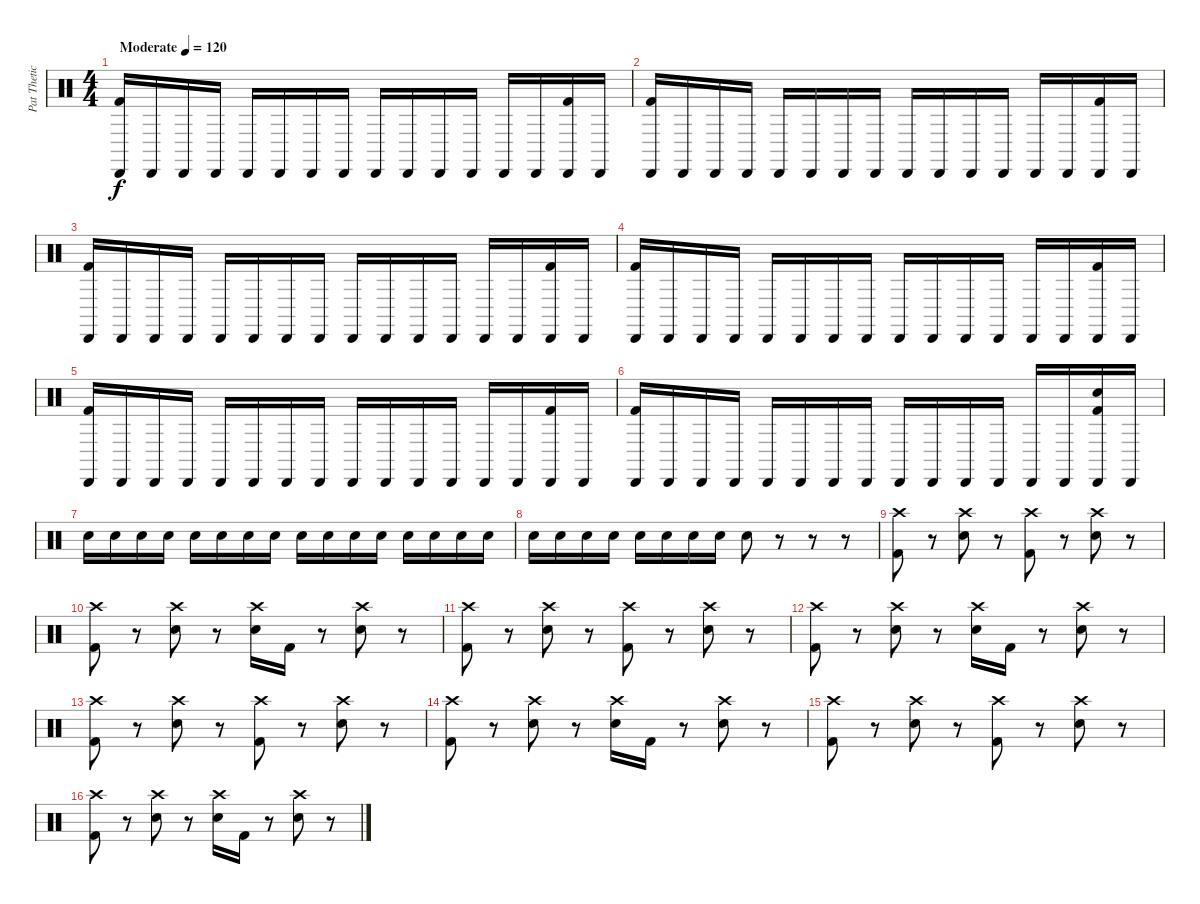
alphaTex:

\track ("Pat Thetic" "Pat Thetic") {instrument percussion}
\staff {score}
\articulation defaults
\ts (4 4)
\tempo (120 "Moderate")
\clef neutral
\ks c
("Cabasa (hit)" "Kick (hit) 2").16{dy f} "Cabasa (hit)".16 "Cabasa (hit)".16 "Cabasa (hit)".16 "Cabasa (hit)".16 "Cabasa (hit)".16 "Cabasa (hit)".16 "Cabasa (hit)".16 "Cabasa (hit)".16 "Cabasa (hit)".16 "Cabasa (hit)".16 "Cabasa (hit)".16 "Cabasa (hit)".16 "Cabasa (hit)".16 ("Cabasa (hit)" "Kick (hit) 2").16 "Cabasa (hit)".16 |
("Cabasa (hit)" "Kick (hit) 2").16 "Cabasa (hit)".16 "Cabasa (hit)".16 "Cabasa (hit)".16 "Cabasa (hit)".16 "Cabasa (hit)".16 "Cabasa (hit)".16 "Cabasa (hit)".16 "Cabasa (hit)".16 "Cabasa (hit)".16 "Cabasa (hit)".16 "Cabasa (hit)".16 "Cabasa (hit)".16 "Cabasa (hit)".16 ("Cabasa (hit)" "Kick (hit) 2").16 "Cabasa (hit)".16 |
("Cabasa (hit)" "Kick (hit) 2").16 "Cabasa (hit)".16 "Cabasa (hit)".16 "Cabasa (hit)".16 "Cabasa (hit)".16 "Cabasa (hit)".16 "Cabasa (hit)".16 "Cabasa (hit)".16 "Cabasa (hit)".16 "Cabasa (hit)".16 "Cabasa (hit)".16 "Cabasa (hit)".16 "Cabasa (hit)".16 "Cabasa (hit)".16 ("Cabasa (hit)" "Kick (hit) 2").16 "Cabasa (hit)".16 |
("Cabasa (hit)" "Kick (hit) 2").16 "Cabasa (hit)".16 "Cabasa (hit)".16 "Cabasa (hit)".16 "Cabasa (hit)".16 "Cabasa (hit)".16 "Cabasa (hit)".16 "Cabasa (hit)".16 "Cabasa (hit)".16 "Cabasa (hit)".16 "Cabasa (hit)".16 "Cabasa (hit)".16 "Cabasa (hit)".16 "Cabasa (hit)".16 ("Cabasa (hit)" "Kick (hit) 2").16 "Cabasa (hit)".16 |
("Cabasa (hit)" "Kick (hit) 2").16 "Cabasa (hit)".16 "Cabasa (hit)".16 "Cabasa (hit)".16 "Cabasa (hit)".16 "Cabasa (hit)".16 "Cabasa (hit)".16 "Cabasa (hit)".16 "Cabasa (hit)".16 "Cabasa (hit)".16 "Cabasa (hit)".16 "Cabasa (hit)".16 "Cabasa (hit)".16 "Cabasa (hit)".16 ("Cabasa (hit)" "Kick (hit) 2").16 "Cabasa (hit)".16 |
("Cabasa (hit)" "Kick (hit) 2").16 "Cabasa (hit)".16 "Cabasa (hit)".16 "Cabasa (hit)".16 "Cabasa (hit)".16 "Cabasa (hit)".16 "Cabasa (hit)".16 "Cabasa (hit)".16 "Cabasa (hit)".16 "Cabasa (hit)".16 "Cabasa (hit)".16 "Cabasa (hit)".16 "Cabasa (hit)".16 "Cabasa (hit)".16 ("Cabasa (hit)" "Electric Snare (hit)" "Kick (hit) 2").16 "Cabasa (hit)".16 |
"Electric Snare (hit)".16 "Electric Snare (hit)".16 "Electric Snare (hit)".16 "Electric Snare (hit)".16 "Electric Snare (hit)".16 "Electric Snare (hit)".16 "Electric Snare (hit)".16 "Electric Snare (hit)".16 "Electric Snare (hit)".16 "Electric Snare (hit)".16 "Electric Snare (hit)".16 "Electric Snare (hit)".16 "Electric Snare (hit)".16 "Electric Snare (hit)".16 "Electric Snare (hit)".16 "Electric Snare (hit)".16 |
"Electric Snare (hit)".16 "Electric Snare (hit)".16 "Electric Snare (hit)".16 "Electric Snare (hit)".16 "Electric Snare (hit)".16 "Electric Snare (hit)".16 "Electric Snare (hit)".16 "Electric Snare (hit)".16 "Electric Snare (hit)".8 r.8 r.8 r.8 |
("Crash high (hit)" "Kick (hit) 2").8 r.8 ("Crash high (hit)" "Electric Snare (hit)").8 r.8 ("Crash high (hit)" "Kick (hit) 2").8 r.8 ("Crash high (hit)" "Electric Snare (hit)").8 r.8 |
("Crash high (hit)" "Kick (hit) 2").8 r.8 ("Crash high (hit)" "Electric Snare (hit)").8 r.8 ("Crash high (hit)" "Electric Snare (hit)").16 "Kick (hit) 2".16 r.8 ("Crash high (hit)" "Electric Snare (hit)").8 r.8 |
("Crash high (hit)" "Kick (hit) 2").8 r.8 ("Crash high (hit)" "Electric Snare (hit)").8 r.8 ("Crash high (hit)" "Kick (hit) 2").8 r.8 ("Crash high (hit)" "Electric Snare (hit)").8 r.8 |
("Crash high (hit)" "Kick (hit) 2").8 r.8 ("Crash high (hit)" "Electric Snare (hit)").8 r.8 ("Crash high (hit)" "Electric Snare (hit)").16 "Kick (hit) 2".16 r.8 ("Crash high (hit)" "Electric Snare (hit)").8 r.8 |
("Crash high (hit)" "Kick (hit) 2").8 r.8 ("Crash high (hit)" "Electric Snare (hit)").8 r.8 ("Crash high (hit)" "Kick (hit) 2").8 r.8 ("Crash high (hit)" "Electric Snare (hit)").8 r.8 |
("Crash high (hit)" "Kick (hit) 2").8 r.8 ("Crash high (hit)" "Electric Snare (hit)").8 r.8 ("Crash high (hit)" "Electric Snare (hit)").16 "Kick (hit) 2".16 r.8 ("Crash high (hit)" "Electric Snare (hit)").8 r.8 |
("Crash high (hit)" "Kick (hit) 2").8 r.8 ("Crash high (hit)" "Electric Snare (hit)").8 r.8 ("Crash high (hit)" "Kick (hit) 2").8 r.8 ("Crash high (hit)" "Electric Snare (hit)").8 r.8 |
("Crash high (hit)" "Kick (hit) 2").8 r.8 ("Crash high (hit)" "Electric Snare (hit)").8 r.8 ("Crash high (hit)" "Electric Snare (hit)").16 "Kick (hit) 2".16 r.8 ("Crash high (hit)" "Electric Snare (hit)").8 r.8
